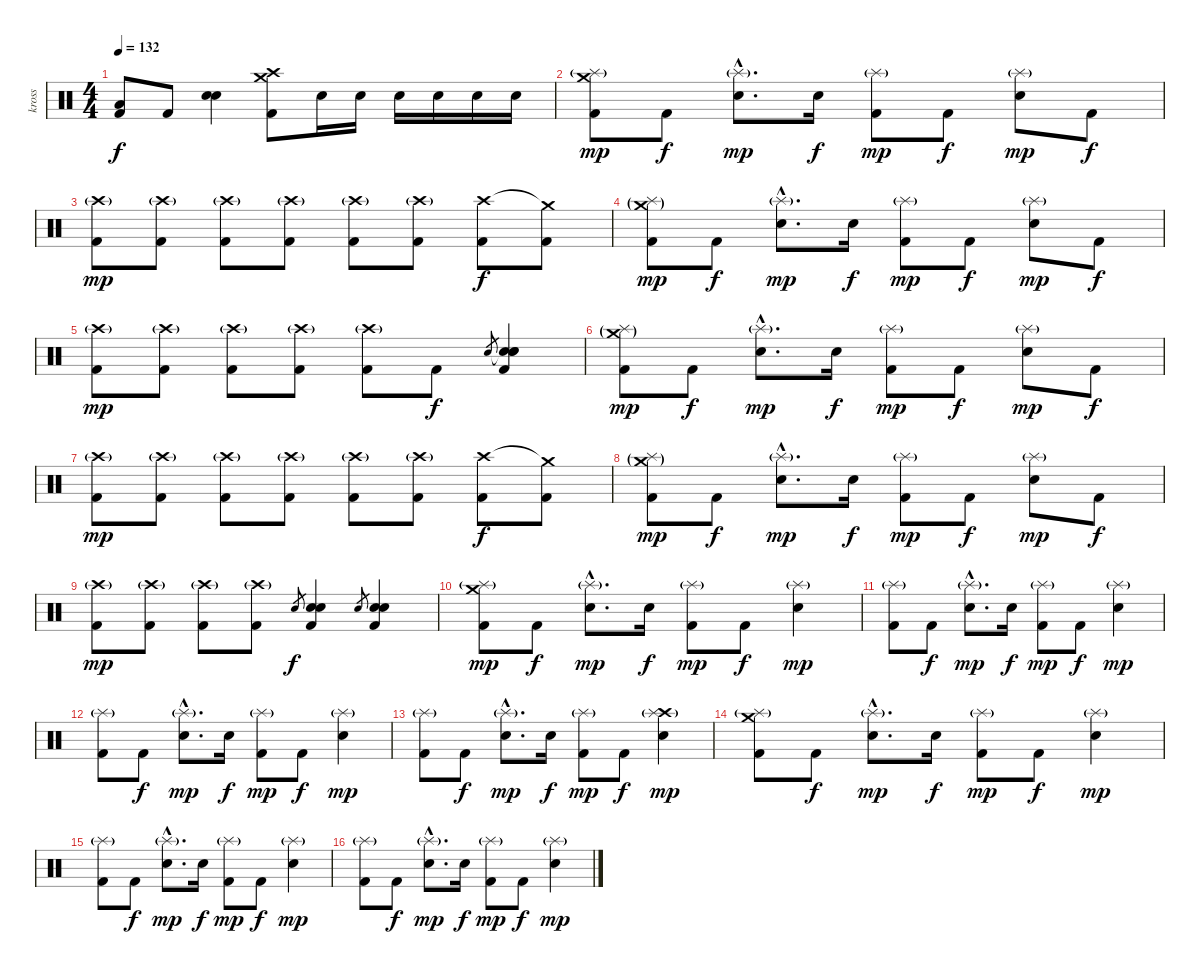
\track ("kross" "kross") {instrument percussion}
\staff {score}
\articulation defaults
\ts (4 4)
\tempo 132
\clef neutral
\ks c
("Low Floor Tom (hit)" "Kick (hit) 2").8{dy f} "Kick (hit) 2".8 ("Electric Snare (hit)" "Electric Snare (hit)").4 ("Crash medium (hit)" "Crash high (hit)" "Kick (hit) 2").8{volume 16} "Electric Snare (hit)".16 "Electric Snare (hit)".16 "Electric Snare (hit)".16 "Electric Snare (hit)".16 "Electric Snare (hit)".16 "Electric Snare (hit)".16 |
("Crash medium (hit)" "Splash (hit)"{g} "Kick (hit) 2").8{dy mp} "Kick (hit) 2".8{dy f} ("Splash (hit)"{g hac} "Electric Snare (hit)"{hac}).8{d dy mp} "Electric Snare (hit)".16{dy f} ("Splash (hit)"{g} "Kick (hit) 2").8{dy mp} "Kick (hit) 2".8{dy f} ("Splash (hit)"{g} "Electric Snare (hit)").8{dy mp} "Kick (hit) 2".8{dy f} |
("Crash high (hit)"{g} "Kick (hit) 2").8{dy mp} ("Crash high (hit)"{g} "Kick (hit) 2").8 ("Crash high (hit)"{g} "Kick (hit) 2").8 ("Crash high (hit)"{g} "Kick (hit) 2").8 ("Crash high (hit)"{g} "Kick (hit) 2").8 ("Crash high (hit)"{g} "Kick (hit) 2").8 ("Crash high (hit)" "Kick (hit) 2").8{dy f} ("Crash medium (hit)"{t} "Kick (hit) 2").8 |
("Crash medium (hit)"{g} "Splash (hit)"{g} "Kick (hit) 2").8{dy mp} "Kick (hit) 2".8{dy f} ("Splash (hit)"{g hac} "Electric Snare (hit)"{hac}).8{d dy mp} "Electric Snare (hit)".16{dy f} ("Splash (hit)"{g} "Kick (hit) 2").8{dy mp} "Kick (hit) 2".8{dy f} ("Splash (hit)"{g} "Electric Snare (hit)").8{dy mp} "Kick (hit) 2".8{dy f} |
("Crash high (hit)"{g} "Kick (hit) 2").8{dy mp} ("Crash high (hit)"{g} "Kick (hit) 2").8 ("Crash high (hit)"{g} "Kick (hit) 2").8 ("Crash high (hit)"{g} "Kick (hit) 2").8 ("Crash high (hit)"{g} "Kick (hit) 2").8 "Kick (hit) 2".8{dy f} "Electric Snare (hit)".8{gr} ("Snare (hit)"{t} "Electric Snare (hit)" "Electric Snare (hit)" "Kick (hit) 2").4 |
("Crash medium (hit)"{g} "Splash (hit)"{g} "Kick (hit) 2").8{dy mp} "Kick (hit) 2".8{dy f} ("Splash (hit)"{g hac} "Electric Snare (hit)"{hac}).8{d dy mp} "Electric Snare (hit)".16{dy f} ("Splash (hit)"{g} "Kick (hit) 2").8{dy mp} "Kick (hit) 2".8{dy f} ("Splash (hit)"{g} "Electric Snare (hit)").8{dy mp} "Kick (hit) 2".8{dy f} |
("Crash high (hit)"{g} "Kick (hit) 2").8{dy mp} ("Crash high (hit)"{g} "Kick (hit) 2").8 ("Crash high (hit)"{g} "Kick (hit) 2").8 ("Crash high (hit)"{g} "Kick (hit) 2").8 ("Crash high (hit)"{g} "Kick (hit) 2").8 ("Crash high (hit)"{g} "Kick (hit) 2").8 ("Crash high (hit)" "Kick (hit) 2").8{dy f} ("Crash medium (hit)"{t} "Kick (hit) 2").8 |
("Crash medium (hit)"{g} "Splash (hit)"{g} "Kick (hit) 2").8{dy mp} "Kick (hit) 2".8{dy f} ("Splash (hit)"{g hac} "Electric Snare (hit)"{hac}).8{d dy mp} "Electric Snare (hit)".16{dy f} ("Splash (hit)"{g} "Kick (hit) 2").8{dy mp} "Kick (hit) 2".8{dy f} ("Splash (hit)"{g} "Electric Snare (hit)").8{dy mp} "Kick (hit) 2".8{dy f} |
("Crash high (hit)"{g} "Kick (hit) 2").8{dy mp} ("Crash high (hit)"{g} "Kick (hit) 2").8 ("Crash high (hit)"{g} "Kick (hit) 2").8 ("Crash high (hit)"{g} "Kick (hit) 2").8 "Electric Snare (hit)".8{gr dy f} ("Electric Snare (hit)" "Electric Snare (hit)" "Kick (hit) 2").4 "Electric Snare (hit)".8{gr} ("Electric Snare (hit)" "Electric Snare (hit)" "Kick (hit) 2").4 |
("Crash medium (hit)" "Splash (hit)"{g} "Kick (hit) 2").8{dy mp} "Kick (hit) 2".8{dy f} ("Splash (hit)"{g hac} "Electric Snare (hit)"{hac}).8{d dy mp} "Electric Snare (hit)".16{dy f} ("Splash (hit)"{g} "Kick (hit) 2").8{dy mp} "Kick (hit) 2".8{dy f} ("Splash (hit)"{g} "Electric Snare (hit)").4{dy mp} |
("Splash (hit)"{g} "Kick (hit) 2").8 "Kick (hit) 2".8{dy f} ("Splash (hit)"{g hac} "Electric Snare (hit)"{hac}).8{d dy mp} "Electric Snare (hit)".16{dy f} ("Splash (hit)"{g} "Kick (hit) 2").8{dy mp} "Kick (hit) 2".8{dy f} ("Splash (hit)"{g} "Electric Snare (hit)").4{dy mp} |
("Splash (hit)"{g} "Kick (hit) 2").8 "Kick (hit) 2".8{dy f} ("Splash (hit)"{g hac} "Electric Snare (hit)"{hac}).8{d dy mp} "Electric Snare (hit)".16{dy f} ("Splash (hit)"{g} "Kick (hit) 2").8{dy mp} "Kick (hit) 2".8{dy f} ("Splash (hit)"{g} "Electric Snare (hit)").4{dy mp} |
("Splash (hit)"{g} "Kick (hit) 2").8 "Kick (hit) 2".8{dy f} ("Splash (hit)"{g hac} "Electric Snare (hit)"{hac}).8{d dy mp} "Electric Snare (hit)".16{dy f} ("Splash (hit)"{g} "Kick (hit) 2").8{dy mp} "Kick (hit) 2".8{dy f} ("Crash high (hit)" "Splash (hit)"{g} "Electric Snare (hit)").4{dy mp} |
("Crash medium (hit)" "Splash (hit)"{g} "Kick (hit) 2").8 "Kick (hit) 2".8{dy f} ("Splash (hit)"{g hac} "Electric Snare (hit)"{hac}).8{d dy mp} "Electric Snare (hit)".16{dy f} ("Splash (hit)"{g} "Kick (hit) 2").8{dy mp} "Kick (hit) 2".8{dy f} ("Splash (hit)"{g} "Electric Snare (hit)").4{dy mp} |
("Splash (hit)"{g} "Kick (hit) 2").8 "Kick (hit) 2".8{dy f} ("Splash (hit)"{g hac} "Electric Snare (hit)"{hac}).8{d dy mp} "Electric Snare (hit)".16{dy f} ("Splash (hit)"{g} "Kick (hit) 2").8{dy mp} "Kick (hit) 2".8{dy f} ("Splash (hit)"{g} "Electric Snare (hit)").4{dy mp} |
("Splash (hit)"{g} "Kick (hit) 2").8 "Kick (hit) 2".8{dy f} ("Splash (hit)"{g hac} "Electric Snare (hit)"{hac}).8{d dy mp} "Electric Snare (hit)".16{dy f} ("Splash (hit)"{g} "Kick (hit) 2").8{dy mp} "Kick (hit) 2".8{dy f} ("Splash (hit)"{g} "Electric Snare (hit)").4{dy mp}
